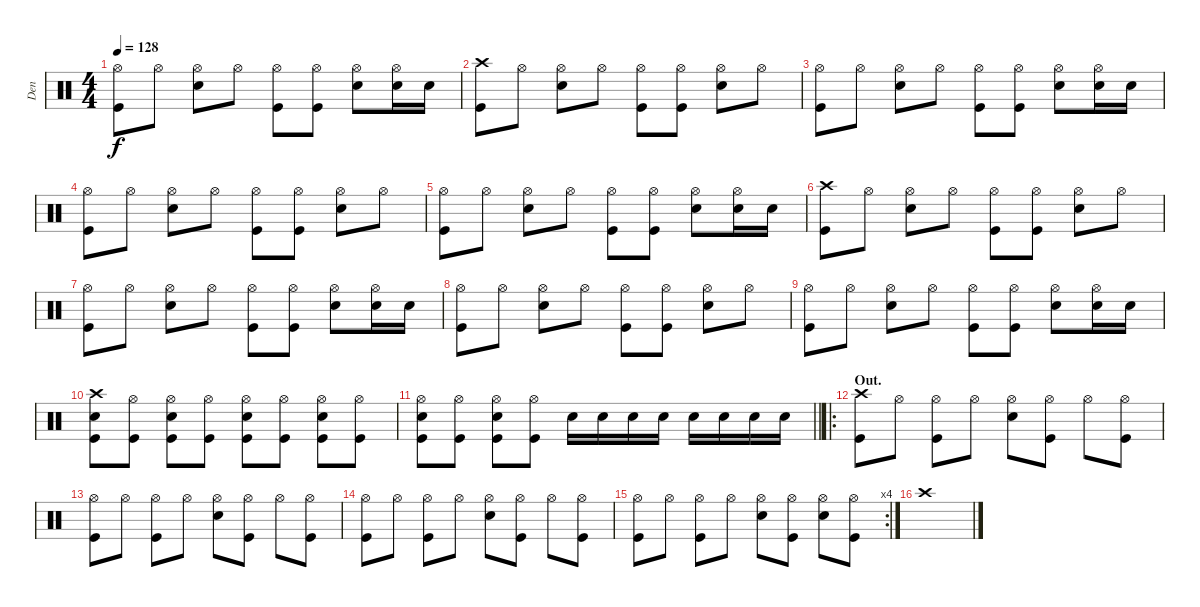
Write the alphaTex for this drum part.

\track ("Den" "Den") {instrument percussion}
\staff
\articulation defaults
\ts (4 4)
\tempo 128
\clef neutral
\ks c
("Hi-Hat (open)" "Kick (hit)").8{dy f} "Hi-Hat (open)".8 ("Hi-Hat (open)" "Snare (hit) 2").8 "Hi-Hat (open)".8 ("Hi-Hat (open)" "Kick (hit)").8 ("Hi-Hat (open)" "Kick (hit)").8 ("Hi-Hat (open)" "Snare (hit) 2").8 ("Hi-Hat (open)" "Snare (hit) 2").16 "Snare (hit) 2".16 |
("Crash high (hit)" "Kick (hit)").8 "Hi-Hat (open)".8 ("Hi-Hat (open)" "Snare (hit) 2").8 "Hi-Hat (open)".8 ("Hi-Hat (open)" "Kick (hit)").8 ("Hi-Hat (open)" "Kick (hit)").8 ("Hi-Hat (open)" "Snare (hit) 2").8 "Hi-Hat (open)".8 |
("Hi-Hat (open)" "Kick (hit)").8 "Hi-Hat (open)".8 ("Hi-Hat (open)" "Snare (hit) 2").8 "Hi-Hat (open)".8 ("Hi-Hat (open)" "Kick (hit)").8 ("Hi-Hat (open)" "Kick (hit)").8 ("Hi-Hat (open)" "Snare (hit) 2").8 ("Hi-Hat (open)" "Snare (hit) 2").16 "Snare (hit) 2".16 |
("Hi-Hat (open)" "Kick (hit)").8 "Hi-Hat (open)".8 ("Hi-Hat (open)" "Snare (hit) 2").8 "Hi-Hat (open)".8 ("Hi-Hat (open)" "Kick (hit)").8 ("Hi-Hat (open)" "Kick (hit)").8 ("Hi-Hat (open)" "Snare (hit) 2").8 "Hi-Hat (open)".8 |
("Hi-Hat (open)" "Kick (hit)").8 "Hi-Hat (open)".8 ("Hi-Hat (open)" "Snare (hit) 2").8 "Hi-Hat (open)".8 ("Hi-Hat (open)" "Kick (hit)").8 ("Hi-Hat (open)" "Kick (hit)").8 ("Hi-Hat (open)" "Snare (hit) 2").8 ("Hi-Hat (open)" "Snare (hit) 2").16 "Snare (hit) 2".16 |
("Crash high (hit)" "Kick (hit)").8 "Hi-Hat (open)".8 ("Hi-Hat (open)" "Snare (hit) 2").8 "Hi-Hat (open)".8 ("Hi-Hat (open)" "Kick (hit)").8 ("Hi-Hat (open)" "Kick (hit)").8 ("Hi-Hat (open)" "Snare (hit) 2").8 "Hi-Hat (open)".8 |
("Hi-Hat (open)" "Kick (hit)").8 "Hi-Hat (open)".8 ("Hi-Hat (open)" "Snare (hit) 2").8 "Hi-Hat (open)".8 ("Hi-Hat (open)" "Kick (hit)").8 ("Hi-Hat (open)" "Kick (hit)").8 ("Hi-Hat (open)" "Snare (hit) 2").8 ("Hi-Hat (open)" "Snare (hit) 2").16 "Snare (hit) 2".16 |
("Hi-Hat (open)" "Kick (hit)").8 "Hi-Hat (open)".8 ("Hi-Hat (open)" "Snare (hit) 2").8 "Hi-Hat (open)".8 ("Hi-Hat (open)" "Kick (hit)").8 ("Hi-Hat (open)" "Kick (hit)").8 ("Hi-Hat (open)" "Snare (hit) 2").8 "Hi-Hat (open)".8 |
("Hi-Hat (open)" "Kick (hit)").8 "Hi-Hat (open)".8 ("Hi-Hat (open)" "Snare (hit) 2").8 "Hi-Hat (open)".8 ("Hi-Hat (open)" "Kick (hit)").8 ("Hi-Hat (open)" "Kick (hit)").8 ("Hi-Hat (open)" "Snare (hit) 2").8 ("Hi-Hat (open)" "Snare (hit) 2").16 "Snare (hit) 2".16 |
("Crash high (hit)" "Snare (hit) 2" "Kick (hit)").8 ("Hi-Hat (open)" "Kick (hit)").8 ("Hi-Hat (open)" "Snare (hit) 2" "Kick (hit)").8 ("Hi-Hat (open)" "Kick (hit)").8 ("Hi-Hat (open)" "Snare (hit) 2" "Kick (hit)").8 ("Hi-Hat (open)" "Kick (hit)").8 ("Hi-Hat (open)" "Snare (hit) 2" "Kick (hit)").8 ("Hi-Hat (open)" "Kick (hit)").8 |
\barLineRight lightlight
("Hi-Hat (open)" "Snare (hit) 2" "Kick (hit)").8 ("Hi-Hat (open)" "Kick (hit)").8 ("Hi-Hat (open)" "Snare (hit) 2" "Kick (hit)").8 ("Hi-Hat (open)" "Kick (hit)").8 "Snare (hit) 2".16 "Snare (hit) 2".16 "Snare (hit) 2".16 "Snare (hit) 2".16 "Snare (hit) 2".16 "Snare (hit) 2".16 "Snare (hit) 2".16 "Snare (hit) 2".16 |
\ro
\section ("" "Out.")
("Crash high (hit)" "Kick (hit)").8 "Hi-Hat (open)".8 ("Hi-Hat (open)" "Kick (hit)").8 "Hi-Hat (open)".8 ("Hi-Hat (open)" "Snare (hit) 2").8 ("Hi-Hat (open)" "Kick (hit)").8 "Hi-Hat (open)".8 ("Hi-Hat (open)" "Kick (hit)").8 |
("Hi-Hat (open)" "Kick (hit)").8 "Hi-Hat (open)".8 ("Hi-Hat (open)" "Kick (hit)").8 "Hi-Hat (open)".8 ("Hi-Hat (open)" "Snare (hit) 2").8 ("Hi-Hat (open)" "Kick (hit)").8 "Hi-Hat (open)".8 ("Hi-Hat (open)" "Kick (hit)").8 |
("Hi-Hat (open)" "Kick (hit)").8 "Hi-Hat (open)".8 ("Hi-Hat (open)" "Kick (hit)").8 "Hi-Hat (open)".8 ("Hi-Hat (open)" "Snare (hit) 2").8 ("Hi-Hat (open)" "Kick (hit)").8 "Hi-Hat (open)".8 ("Hi-Hat (open)" "Kick (hit)").8 |
\rc 4
("Hi-Hat (open)" "Kick (hit)").8 "Hi-Hat (open)".8 ("Hi-Hat (open)" "Kick (hit)").8 "Hi-Hat (open)".8 ("Hi-Hat (open)" "Snare (hit) 2").8 ("Hi-Hat (open)" "Kick (hit)").8 ("Hi-Hat (open)" "Snare (hit) 2").8 ("Hi-Hat (open)" "Kick (hit)").8 |
"Crash high (hit)".1
